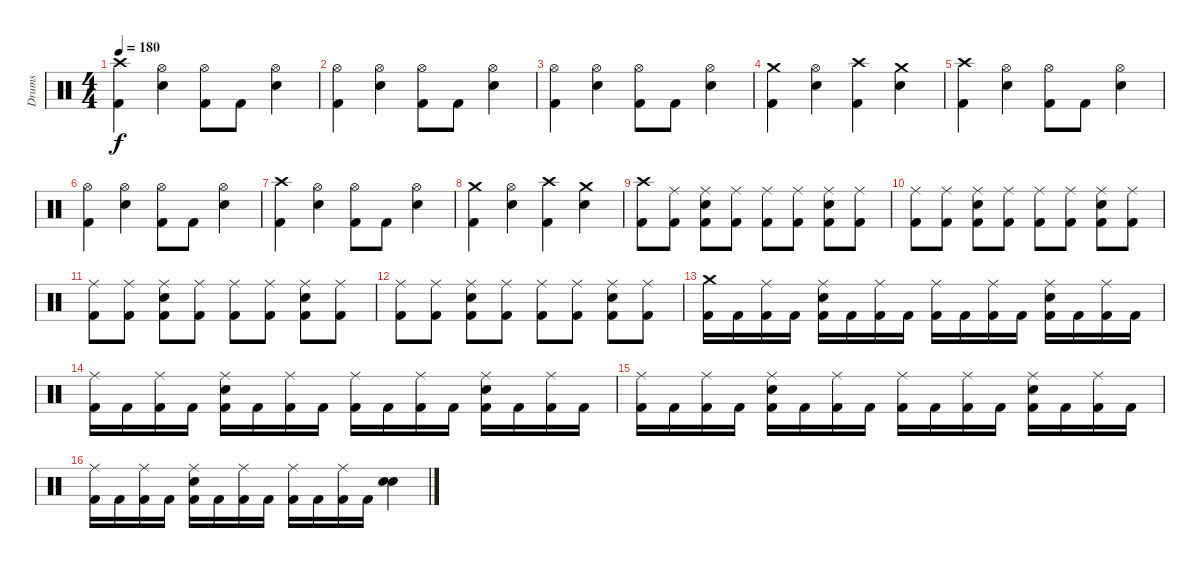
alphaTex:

\track ("Drums" "Drums") {instrument percussion}
\staff {score}
\articulation defaults
\ts (4 4)
\tempo 180
\clef neutral
\ks c
("Crash high (hit)" "Kick (hit) 2").4{dy f} ("Hi-Hat (open)" "Snare (hit) 2").4 ("Hi-Hat (open)" "Kick (hit) 2").8 "Kick (hit) 2".8 ("Hi-Hat (open)" "Snare (hit) 2").4 |
("Hi-Hat (open)" "Kick (hit) 2").4 ("Hi-Hat (open)" "Snare (hit) 2").4 ("Hi-Hat (open)" "Kick (hit) 2").8 "Kick (hit) 2".8 ("Hi-Hat (open)" "Snare (hit) 2").4 |
("Hi-Hat (open)" "Kick (hit) 2").4 ("Hi-Hat (open)" "Snare (hit) 2").4 ("Hi-Hat (open)" "Kick (hit) 2").8 "Kick (hit) 2".8 ("Hi-Hat (open)" "Snare (hit) 2").4 |
("Crash medium (hit)" "Kick (hit) 2").4 ("Hi-Hat (open)" "Snare (hit) 2").4 ("Crash high (hit)" "Kick (hit) 2").4 ("Crash medium (hit)" "Snare (hit) 2").4 |
("Crash high (hit)" "Kick (hit) 2").4 ("Hi-Hat (open)" "Snare (hit) 2").4 ("Hi-Hat (open)" "Kick (hit) 2").8 "Kick (hit) 2".8 ("Hi-Hat (open)" "Snare (hit) 2").4 |
("Hi-Hat (open)" "Kick (hit) 2").4 ("Hi-Hat (open)" "Snare (hit) 2").4 ("Hi-Hat (open)" "Kick (hit) 2").8 "Kick (hit) 2".8 ("Hi-Hat (open)" "Snare (hit) 2").4 |
("Crash high (hit)" "Kick (hit) 2").4 ("Hi-Hat (open)" "Snare (hit) 2").4 ("Hi-Hat (open)" "Kick (hit) 2").8 "Kick (hit) 2".8 ("Hi-Hat (open)" "Snare (hit) 2").4 |
("Crash medium (hit)" "Kick (hit) 2").4 ("Hi-Hat (open)" "Snare (hit) 2").4 ("Crash high (hit)" "Kick (hit) 2").4 ("Crash medium (hit)" "Snare (hit) 2").4 |
("Crash high (hit)" "Kick (hit) 2").8 ("Ride (middle)" "Kick (hit) 2").8 ("Ride (middle)" "Snare (hit) 2" "Kick (hit) 2").8 ("Ride (middle)" "Kick (hit) 2").8 ("Ride (middle)" "Kick (hit) 2").8 ("Ride (middle)" "Kick (hit) 2").8 ("Ride (middle)" "Snare (hit) 2" "Kick (hit) 2").8 ("Ride (middle)" "Kick (hit) 2").8 |
("Ride (middle)" "Kick (hit) 2").8 ("Ride (middle)" "Kick (hit) 2").8 ("Ride (middle)" "Snare (hit) 2" "Kick (hit) 2").8 ("Ride (middle)" "Kick (hit) 2").8 ("Ride (middle)" "Kick (hit) 2").8 ("Ride (middle)" "Kick (hit) 2").8 ("Ride (middle)" "Snare (hit) 2" "Kick (hit) 2").8 ("Ride (middle)" "Kick (hit) 2").8 |
("Ride (middle)" "Kick (hit) 2").8 ("Ride (middle)" "Kick (hit) 2").8 ("Ride (middle)" "Snare (hit) 2" "Kick (hit) 2").8 ("Ride (middle)" "Kick (hit) 2").8 ("Ride (middle)" "Kick (hit) 2").8 ("Ride (middle)" "Kick (hit) 2").8 ("Ride (middle)" "Snare (hit) 2" "Kick (hit) 2").8 ("Ride (middle)" "Kick (hit) 2").8 |
("Ride (middle)" "Kick (hit) 2").8 ("Ride (middle)" "Kick (hit) 2").8 ("Ride (middle)" "Snare (hit) 2" "Kick (hit) 2").8 ("Ride (middle)" "Kick (hit) 2").8 ("Ride (middle)" "Kick (hit) 2").8 ("Ride (middle)" "Kick (hit) 2").8 ("Ride (middle)" "Snare (hit) 2" "Kick (hit) 2").8 ("Ride (middle)" "Kick (hit) 2").8 |
("Crash medium (hit)" "Kick (hit) 2").16 "Kick (hit) 2".16 ("Ride (middle)" "Kick (hit) 2").16 "Kick (hit) 2".16 ("Ride (middle)" "Snare (hit) 2" "Kick (hit) 2").16 "Kick (hit) 2".16 ("Ride (middle)" "Kick (hit) 2").16 "Kick (hit) 2".16 ("Ride (middle)" "Kick (hit) 2").16 "Kick (hit) 2".16 ("Ride (middle)" "Kick (hit) 2").16 "Kick (hit) 2".16 ("Ride (middle)" "Snare (hit) 2" "Kick (hit) 2").16 "Kick (hit) 2".16 ("Ride (middle)" "Kick (hit) 2").16 "Kick (hit) 2".16 |
("Ride (middle)" "Kick (hit) 2").16 "Kick (hit) 2".16 ("Ride (middle)" "Kick (hit) 2").16 "Kick (hit) 2".16 ("Ride (middle)" "Snare (hit) 2" "Kick (hit) 2").16 "Kick (hit) 2".16 ("Ride (middle)" "Kick (hit) 2").16 "Kick (hit) 2".16 ("Ride (middle)" "Kick (hit) 2").16 "Kick (hit) 2".16 ("Ride (middle)" "Kick (hit) 2").16 "Kick (hit) 2".16 ("Ride (middle)" "Snare (hit) 2" "Kick (hit) 2").16 "Kick (hit) 2".16 ("Ride (middle)" "Kick (hit) 2").16 "Kick (hit) 2".16 |
("Ride (middle)" "Kick (hit) 2").16 "Kick (hit) 2".16 ("Ride (middle)" "Kick (hit) 2").16 "Kick (hit) 2".16 ("Ride (middle)" "Snare (hit) 2" "Kick (hit) 2").16 "Kick (hit) 2".16 ("Ride (middle)" "Kick (hit) 2").16 "Kick (hit) 2".16 ("Ride (middle)" "Kick (hit) 2").16 "Kick (hit) 2".16 ("Ride (middle)" "Kick (hit) 2").16 "Kick (hit) 2".16 ("Ride (middle)" "Snare (hit) 2" "Kick (hit) 2").16 "Kick (hit) 2".16 ("Ride (middle)" "Kick (hit) 2").16 "Kick (hit) 2".16 |
("Ride (middle)" "Kick (hit) 2").16 "Kick (hit) 2".16 ("Ride (middle)" "Kick (hit) 2").16 "Kick (hit) 2".16 ("Ride (middle)" "Snare (hit) 2" "Kick (hit) 2").16 "Kick (hit) 2".16 ("Ride (middle)" "Kick (hit) 2").16 "Kick (hit) 2".16 ("Ride (middle)" "Kick (hit) 2").16 "Kick (hit) 2".16 ("Ride (middle)" "Kick (hit) 2").16 "Kick (hit) 2".16 ("Electric Snare (hit)" "Snare (hit) 2").4
